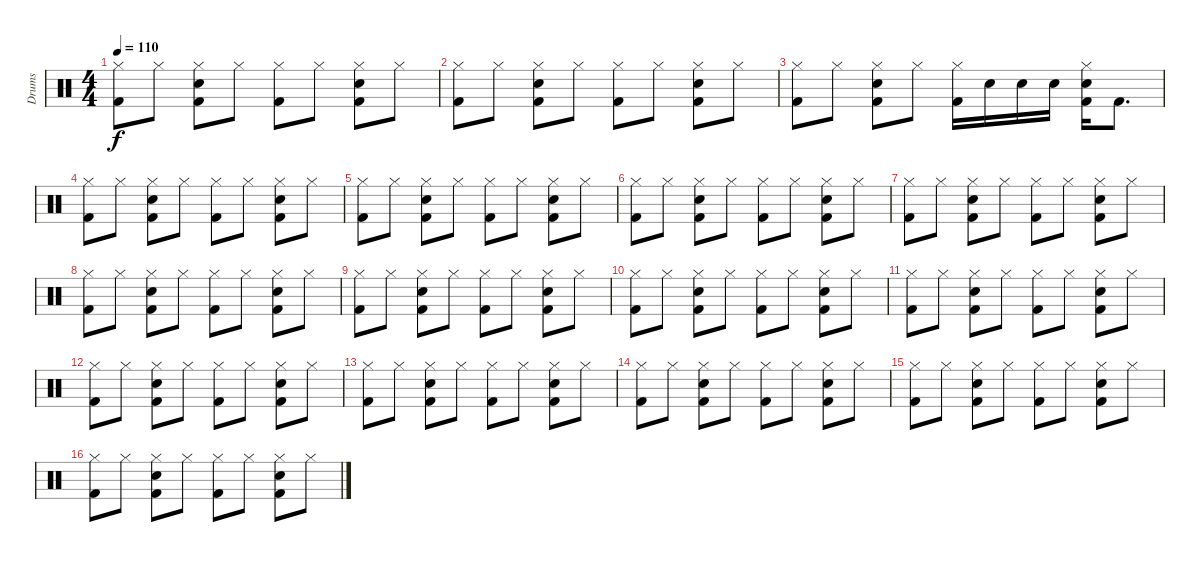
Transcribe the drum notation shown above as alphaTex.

\track ("Drums" "Drums") {instrument percussion}
\staff {score}
\articulation defaults
\ts (4 4)
\tempo 110
\clef neutral
\ks c
("Hi-Hat (closed)" "Kick (hit) 2").8{dy f} "Hi-Hat (closed)".8 ("Hi-Hat (closed)" "Snare (hit) 2" "Kick (hit) 2").8 "Hi-Hat (closed)".8 ("Hi-Hat (closed)" "Kick (hit) 2").8 "Hi-Hat (closed)".8 ("Hi-Hat (closed)" "Snare (hit) 2" "Kick (hit) 2").8 "Hi-Hat (closed)".8 |
("Hi-Hat (closed)" "Kick (hit) 2").8 "Hi-Hat (closed)".8 ("Hi-Hat (closed)" "Snare (hit) 2" "Kick (hit) 2").8 "Hi-Hat (closed)".8 ("Hi-Hat (closed)" "Kick (hit) 2").8 "Hi-Hat (closed)".8 ("Hi-Hat (closed)" "Snare (hit) 2" "Kick (hit) 2").8 "Hi-Hat (closed)".8 |
("Hi-Hat (closed)" "Kick (hit) 2").8 "Hi-Hat (closed)".8 ("Hi-Hat (closed)" "Snare (hit) 2" "Kick (hit) 2").8 "Hi-Hat (closed)".8 ("Hi-Hat (closed)" "Kick (hit) 2").16 "Snare (hit) 2".16 "Snare (hit) 2".16 "Snare (hit) 2".16 ("Hi-Hat (closed)" "Snare (hit) 2" "Kick (hit) 2").16 "Kick (hit) 2".8{d} |
("Hi-Hat (closed)" "Kick (hit) 2").8 "Hi-Hat (closed)".8 ("Hi-Hat (closed)" "Snare (hit) 2" "Kick (hit) 2").8 "Hi-Hat (closed)".8 ("Hi-Hat (closed)" "Kick (hit) 2").8 "Hi-Hat (closed)".8 ("Hi-Hat (closed)" "Snare (hit) 2" "Kick (hit) 2").8 "Hi-Hat (closed)".8 |
("Hi-Hat (closed)" "Kick (hit) 2").8 "Hi-Hat (closed)".8 ("Hi-Hat (closed)" "Snare (hit) 2" "Kick (hit) 2").8 "Hi-Hat (closed)".8 ("Hi-Hat (closed)" "Kick (hit) 2").8 "Hi-Hat (closed)".8 ("Hi-Hat (closed)" "Snare (hit) 2" "Kick (hit) 2").8 "Hi-Hat (closed)".8 |
("Hi-Hat (closed)" "Kick (hit) 2").8 "Hi-Hat (closed)".8 ("Hi-Hat (closed)" "Snare (hit) 2" "Kick (hit) 2").8 "Hi-Hat (closed)".8 ("Hi-Hat (closed)" "Kick (hit) 2").8 "Hi-Hat (closed)".8 ("Hi-Hat (closed)" "Snare (hit) 2" "Kick (hit) 2").8 "Hi-Hat (closed)".8 |
("Hi-Hat (closed)" "Kick (hit) 2").8 "Hi-Hat (closed)".8 ("Hi-Hat (closed)" "Snare (hit) 2" "Kick (hit) 2").8 "Hi-Hat (closed)".8 ("Hi-Hat (closed)" "Kick (hit) 2").8 "Hi-Hat (closed)".8 ("Hi-Hat (closed)" "Snare (hit) 2" "Kick (hit) 2").8 "Hi-Hat (closed)".8 |
("Hi-Hat (closed)" "Kick (hit) 2").8 "Hi-Hat (closed)".8 ("Hi-Hat (closed)" "Snare (hit) 2" "Kick (hit) 2").8 "Hi-Hat (closed)".8 ("Hi-Hat (closed)" "Kick (hit) 2").8 "Hi-Hat (closed)".8 ("Hi-Hat (closed)" "Snare (hit) 2" "Kick (hit) 2").8 "Hi-Hat (closed)".8 |
("Hi-Hat (closed)" "Kick (hit) 2").8 "Hi-Hat (closed)".8 ("Hi-Hat (closed)" "Snare (hit) 2" "Kick (hit) 2").8 "Hi-Hat (closed)".8 ("Hi-Hat (closed)" "Kick (hit) 2").8 "Hi-Hat (closed)".8 ("Hi-Hat (closed)" "Snare (hit) 2" "Kick (hit) 2").8 "Hi-Hat (closed)".8 |
("Hi-Hat (closed)" "Kick (hit) 2").8 "Hi-Hat (closed)".8 ("Hi-Hat (closed)" "Snare (hit) 2" "Kick (hit) 2").8 "Hi-Hat (closed)".8 ("Hi-Hat (closed)" "Kick (hit) 2").8 "Hi-Hat (closed)".8 ("Hi-Hat (closed)" "Snare (hit) 2" "Kick (hit) 2").8 "Hi-Hat (closed)".8 |
("Hi-Hat (closed)" "Kick (hit) 2").8 "Hi-Hat (closed)".8 ("Hi-Hat (closed)" "Snare (hit) 2" "Kick (hit) 2").8 "Hi-Hat (closed)".8 ("Hi-Hat (closed)" "Kick (hit) 2").8 "Hi-Hat (closed)".8 ("Hi-Hat (closed)" "Snare (hit) 2" "Kick (hit) 2").8 "Hi-Hat (closed)".8 |
("Hi-Hat (closed)" "Kick (hit) 2").8 "Hi-Hat (closed)".8 ("Hi-Hat (closed)" "Snare (hit) 2" "Kick (hit) 2").8 "Hi-Hat (closed)".8 ("Hi-Hat (closed)" "Kick (hit) 2").8 "Hi-Hat (closed)".8 ("Hi-Hat (closed)" "Snare (hit) 2" "Kick (hit) 2").8 "Hi-Hat (closed)".8 |
("Hi-Hat (closed)" "Kick (hit) 2").8 "Hi-Hat (closed)".8 ("Hi-Hat (closed)" "Snare (hit) 2" "Kick (hit) 2").8 "Hi-Hat (closed)".8 ("Hi-Hat (closed)" "Kick (hit) 2").8 "Hi-Hat (closed)".8 ("Hi-Hat (closed)" "Snare (hit) 2" "Kick (hit) 2").8 "Hi-Hat (closed)".8 |
("Hi-Hat (closed)" "Kick (hit) 2").8 "Hi-Hat (closed)".8 ("Hi-Hat (closed)" "Snare (hit) 2" "Kick (hit) 2").8 "Hi-Hat (closed)".8 ("Hi-Hat (closed)" "Kick (hit) 2").8 "Hi-Hat (closed)".8 ("Hi-Hat (closed)" "Snare (hit) 2" "Kick (hit) 2").8 "Hi-Hat (closed)".8 |
("Hi-Hat (closed)" "Kick (hit) 2").8 "Hi-Hat (closed)".8 ("Hi-Hat (closed)" "Snare (hit) 2" "Kick (hit) 2").8 "Hi-Hat (closed)".8 ("Hi-Hat (closed)" "Kick (hit) 2").8 "Hi-Hat (closed)".8 ("Hi-Hat (closed)" "Snare (hit) 2" "Kick (hit) 2").8 "Hi-Hat (closed)".8 |
("Hi-Hat (closed)" "Kick (hit) 2").8 "Hi-Hat (closed)".8 ("Hi-Hat (closed)" "Snare (hit) 2" "Kick (hit) 2").8 "Hi-Hat (closed)".8 ("Hi-Hat (closed)" "Kick (hit) 2").8 "Hi-Hat (closed)".8 ("Hi-Hat (closed)" "Snare (hit) 2" "Kick (hit) 2").8 "Hi-Hat (closed)".8
